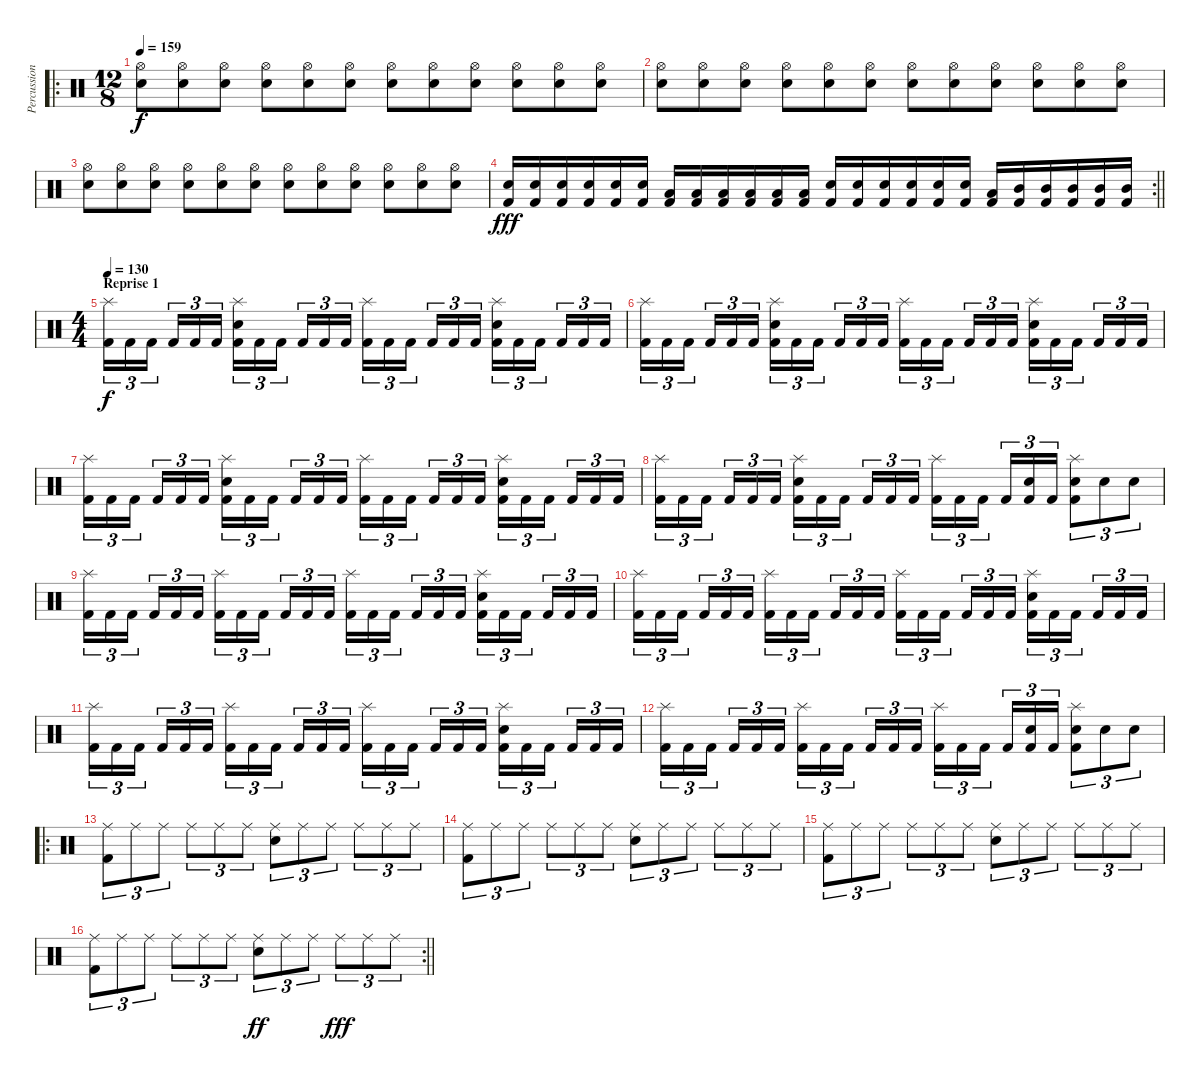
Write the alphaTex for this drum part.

\track ("Percussion" "Percussion") {instrument percussion}
\staff {score}
\articulation defaults
\ro
\ts (12 8)
\tempo 159
\clef neutral
\ks c
("Hi-Hat (open)" "Electric Snare (hit)").8{dy f} ("Hi-Hat (open)" "Electric Snare (hit)").8 ("Hi-Hat (open)" "Electric Snare (hit)").8 ("Hi-Hat (open)" "Electric Snare (hit)").8 ("Hi-Hat (open)" "Electric Snare (hit)").8 ("Hi-Hat (open)" "Electric Snare (hit)").8 ("Hi-Hat (open)" "Electric Snare (hit)").8 ("Hi-Hat (open)" "Electric Snare (hit)").8 ("Hi-Hat (open)" "Electric Snare (hit)").8 ("Hi-Hat (open)" "Electric Snare (hit)").8 ("Hi-Hat (open)" "Electric Snare (hit)").8 ("Hi-Hat (open)" "Electric Snare (hit)").8 |
("Hi-Hat (open)" "Electric Snare (hit)").8 ("Hi-Hat (open)" "Electric Snare (hit)").8 ("Hi-Hat (open)" "Electric Snare (hit)").8 ("Hi-Hat (open)" "Electric Snare (hit)").8 ("Hi-Hat (open)" "Electric Snare (hit)").8 ("Hi-Hat (open)" "Electric Snare (hit)").8 ("Hi-Hat (open)" "Electric Snare (hit)").8 ("Hi-Hat (open)" "Electric Snare (hit)").8 ("Hi-Hat (open)" "Electric Snare (hit)").8 ("Hi-Hat (open)" "Electric Snare (hit)").8 ("Hi-Hat (open)" "Electric Snare (hit)").8 ("Hi-Hat (open)" "Electric Snare (hit)").8 |
("Hi-Hat (open)" "Electric Snare (hit)").8 ("Hi-Hat (open)" "Electric Snare (hit)").8 ("Hi-Hat (open)" "Electric Snare (hit)").8 ("Hi-Hat (open)" "Electric Snare (hit)").8 ("Hi-Hat (open)" "Electric Snare (hit)").8 ("Hi-Hat (open)" "Electric Snare (hit)").8 ("Hi-Hat (open)" "Electric Snare (hit)").8 ("Hi-Hat (open)" "Electric Snare (hit)").8 ("Hi-Hat (open)" "Electric Snare (hit)").8 ("Hi-Hat (open)" "Electric Snare (hit)").8 ("Hi-Hat (open)" "Electric Snare (hit)").8 ("Hi-Hat (open)" "Electric Snare (hit)").8 |
\rc 2
\barLineRight lightlight
("Electric Snare (hit)" "Kick (hit) 2").16{dy fff} ("Electric Snare (hit)" "Kick (hit) 2").16 ("Electric Snare (hit)" "Kick (hit) 2").16 ("Electric Snare (hit)" "Kick (hit) 2").16 ("Electric Snare (hit)" "Kick (hit) 2").16 ("Electric Snare (hit)" "Kick (hit) 2").16 ("Low Tom (hit)" "Kick (hit) 2").16 ("Low Tom (hit)" "Kick (hit) 2").16 ("Low Tom (hit)" "Kick (hit) 2").16 ("Low Tom (hit)" "Kick (hit) 2").16 ("Low Tom (hit)" "Kick (hit) 2").16 ("Low Tom (hit)" "Kick (hit) 2").16 ("Electric Snare (hit)" "Kick (hit) 2").16 ("Electric Snare (hit)" "Kick (hit) 2").16 ("Electric Snare (hit)" "Kick (hit) 2").16 ("Electric Snare (hit)" "Kick (hit) 2").16 ("Electric Snare (hit)" "Kick (hit) 2").16 ("Electric Snare (hit)" "Kick (hit) 2").16 ("Low Tom (hit)" "Kick (hit) 2").16 ("Mid Tom (hit)" "Kick (hit) 2").16 ("Mid Tom (hit)" "Kick (hit) 2").16 ("Mid Tom (hit)" "Kick (hit) 2").16 ("Mid Tom (hit)" "Kick (hit) 2").16 ("Mid Tom (hit)" "Kick (hit) 2").16 |
\ts (4 4)
\section ("" "Reprise 1")
\tempo 130
("Splash (hit)" "Kick (hit) 2").16{tu (3 2) dy f} "Kick (hit) 2".16{tu (3 2)} "Kick (hit) 2".16{tu (3 2)} "Kick (hit) 2".16{tu (3 2)} "Kick (hit) 2".16{tu (3 2)} "Kick (hit) 2".16{tu (3 2)} ("Splash (hit)" "Electric Snare (hit)" "Kick (hit) 2").16{tu (3 2)} "Kick (hit) 2".16{tu (3 2)} "Kick (hit) 2".16{tu (3 2)} "Kick (hit) 2".16{tu (3 2)} "Kick (hit) 2".16{tu (3 2)} "Kick (hit) 2".16{tu (3 2)} ("Splash (hit)" "Kick (hit) 2").16{tu (3 2)} "Kick (hit) 2".16{tu (3 2)} "Kick (hit) 2".16{tu (3 2)} "Kick (hit) 2".16{tu (3 2)} "Kick (hit) 2".16{tu (3 2)} "Kick (hit) 2".16{tu (3 2)} ("Splash (hit)" "Electric Snare (hit)" "Kick (hit) 2").16{tu (3 2)} "Kick (hit) 2".16{tu (3 2)} "Kick (hit) 2".16{tu (3 2)} "Kick (hit) 2".16{tu (3 2)} "Kick (hit) 2".16{tu (3 2)} "Kick (hit) 2".16{tu (3 2)} |
("Splash (hit)" "Kick (hit) 2").16{tu (3 2)} "Kick (hit) 2".16{tu (3 2)} "Kick (hit) 2".16{tu (3 2)} "Kick (hit) 2".16{tu (3 2)} "Kick (hit) 2".16{tu (3 2)} "Kick (hit) 2".16{tu (3 2)} ("Splash (hit)" "Electric Snare (hit)" "Kick (hit) 2").16{tu (3 2)} "Kick (hit) 2".16{tu (3 2)} "Kick (hit) 2".16{tu (3 2)} "Kick (hit) 2".16{tu (3 2)} "Kick (hit) 2".16{tu (3 2)} "Kick (hit) 2".16{tu (3 2)} ("Splash (hit)" "Kick (hit) 2").16{tu (3 2)} "Kick (hit) 2".16{tu (3 2)} "Kick (hit) 2".16{tu (3 2)} "Kick (hit) 2".16{tu (3 2)} "Kick (hit) 2".16{tu (3 2)} "Kick (hit) 2".16{tu (3 2)} ("Splash (hit)" "Electric Snare (hit)" "Kick (hit) 2").16{tu (3 2)} "Kick (hit) 2".16{tu (3 2)} "Kick (hit) 2".16{tu (3 2)} "Kick (hit) 2".16{tu (3 2)} "Kick (hit) 2".16{tu (3 2)} "Kick (hit) 2".16{tu (3 2)} |
("Splash (hit)" "Kick (hit) 2").16{tu (3 2)} "Kick (hit) 2".16{tu (3 2)} "Kick (hit) 2".16{tu (3 2)} "Kick (hit) 2".16{tu (3 2)} "Kick (hit) 2".16{tu (3 2)} "Kick (hit) 2".16{tu (3 2)} ("Splash (hit)" "Electric Snare (hit)" "Kick (hit) 2").16{tu (3 2)} "Kick (hit) 2".16{tu (3 2)} "Kick (hit) 2".16{tu (3 2)} "Kick (hit) 2".16{tu (3 2)} "Kick (hit) 2".16{tu (3 2)} "Kick (hit) 2".16{tu (3 2)} ("Splash (hit)" "Kick (hit) 2").16{tu (3 2)} "Kick (hit) 2".16{tu (3 2)} "Kick (hit) 2".16{tu (3 2)} "Kick (hit) 2".16{tu (3 2)} "Kick (hit) 2".16{tu (3 2)} "Kick (hit) 2".16{tu (3 2)} ("Splash (hit)" "Electric Snare (hit)" "Kick (hit) 2").16{tu (3 2)} "Kick (hit) 2".16{tu (3 2)} "Kick (hit) 2".16{tu (3 2)} "Kick (hit) 2".16{tu (3 2)} "Kick (hit) 2".16{tu (3 2)} "Kick (hit) 2".16{tu (3 2)} |
("Splash (hit)" "Kick (hit) 2").16{tu (3 2)} "Kick (hit) 2".16{tu (3 2)} "Kick (hit) 2".16{tu (3 2)} "Kick (hit) 2".16{tu (3 2)} "Kick (hit) 2".16{tu (3 2)} "Kick (hit) 2".16{tu (3 2)} ("Splash (hit)" "Electric Snare (hit)" "Kick (hit) 2").16{tu (3 2)} "Kick (hit) 2".16{tu (3 2)} "Kick (hit) 2".16{tu (3 2)} "Kick (hit) 2".16{tu (3 2)} "Kick (hit) 2".16{tu (3 2)} "Kick (hit) 2".16{tu (3 2)} ("Splash (hit)" "Kick (hit) 2").16{tu (3 2)} "Kick (hit) 2".16{tu (3 2)} "Kick (hit) 2".16{tu (3 2)} "Kick (hit) 2".16{tu (3 2)} ("Electric Snare (hit)" "Kick (hit) 2").16{tu (3 2)} "Kick (hit) 2".16{tu (3 2)} ("Splash (hit)" "Electric Snare (hit)" "Kick (hit) 2").8{tu (3 2)} "Electric Snare (hit)".8{tu (3 2)} "Electric Snare (hit)".8{tu (3 2)} |
("Splash (hit)" "Kick (hit) 2").16{tu (3 2)} "Kick (hit) 2".16{tu (3 2)} "Kick (hit) 2".16{tu (3 2)} "Kick (hit) 2".16{tu (3 2)} "Kick (hit) 2".16{tu (3 2)} "Kick (hit) 2".16{tu (3 2)} ("Splash (hit)" "Kick (hit) 2").16{tu (3 2)} "Kick (hit) 2".16{tu (3 2)} "Kick (hit) 2".16{tu (3 2)} "Kick (hit) 2".16{tu (3 2)} "Kick (hit) 2".16{tu (3 2)} "Kick (hit) 2".16{tu (3 2)} ("Splash (hit)" "Kick (hit) 2").16{tu (3 2)} "Kick (hit) 2".16{tu (3 2)} "Kick (hit) 2".16{tu (3 2)} "Kick (hit) 2".16{tu (3 2)} "Kick (hit) 2".16{tu (3 2)} "Kick (hit) 2".16{tu (3 2)} ("Splash (hit)" "Electric Snare (hit)" "Kick (hit) 2").16{tu (3 2)} "Kick (hit) 2".16{tu (3 2)} "Kick (hit) 2".16{tu (3 2)} "Kick (hit) 2".16{tu (3 2)} "Kick (hit) 2".16{tu (3 2)} "Kick (hit) 2".16{tu (3 2)} |
("Splash (hit)" "Kick (hit) 2").16{tu (3 2)} "Kick (hit) 2".16{tu (3 2)} "Kick (hit) 2".16{tu (3 2)} "Kick (hit) 2".16{tu (3 2)} "Kick (hit) 2".16{tu (3 2)} "Kick (hit) 2".16{tu (3 2)} ("Splash (hit)" "Kick (hit) 2").16{tu (3 2)} "Kick (hit) 2".16{tu (3 2)} "Kick (hit) 2".16{tu (3 2)} "Kick (hit) 2".16{tu (3 2)} "Kick (hit) 2".16{tu (3 2)} "Kick (hit) 2".16{tu (3 2)} ("Splash (hit)" "Kick (hit) 2").16{tu (3 2)} "Kick (hit) 2".16{tu (3 2)} "Kick (hit) 2".16{tu (3 2)} "Kick (hit) 2".16{tu (3 2)} "Kick (hit) 2".16{tu (3 2)} "Kick (hit) 2".16{tu (3 2)} ("Splash (hit)" "Electric Snare (hit)" "Kick (hit) 2").16{tu (3 2)} "Kick (hit) 2".16{tu (3 2)} "Kick (hit) 2".16{tu (3 2)} "Kick (hit) 2".16{tu (3 2)} "Kick (hit) 2".16{tu (3 2)} "Kick (hit) 2".16{tu (3 2)} |
("Splash (hit)" "Kick (hit) 2").16{tu (3 2)} "Kick (hit) 2".16{tu (3 2)} "Kick (hit) 2".16{tu (3 2)} "Kick (hit) 2".16{tu (3 2)} "Kick (hit) 2".16{tu (3 2)} "Kick (hit) 2".16{tu (3 2)} ("Splash (hit)" "Kick (hit) 2").16{tu (3 2)} "Kick (hit) 2".16{tu (3 2)} "Kick (hit) 2".16{tu (3 2)} "Kick (hit) 2".16{tu (3 2)} "Kick (hit) 2".16{tu (3 2)} "Kick (hit) 2".16{tu (3 2)} ("Splash (hit)" "Kick (hit) 2").16{tu (3 2)} "Kick (hit) 2".16{tu (3 2)} "Kick (hit) 2".16{tu (3 2)} "Kick (hit) 2".16{tu (3 2)} "Kick (hit) 2".16{tu (3 2)} "Kick (hit) 2".16{tu (3 2)} ("Splash (hit)" "Electric Snare (hit)" "Kick (hit) 2").16{tu (3 2)} "Kick (hit) 2".16{tu (3 2)} "Kick (hit) 2".16{tu (3 2)} "Kick (hit) 2".16{tu (3 2)} "Kick (hit) 2".16{tu (3 2)} "Kick (hit) 2".16{tu (3 2)} |
("Splash (hit)" "Kick (hit) 2").16{tu (3 2)} "Kick (hit) 2".16{tu (3 2)} "Kick (hit) 2".16{tu (3 2)} "Kick (hit) 2".16{tu (3 2)} "Kick (hit) 2".16{tu (3 2)} "Kick (hit) 2".16{tu (3 2)} ("Splash (hit)" "Kick (hit) 2").16{tu (3 2)} "Kick (hit) 2".16{tu (3 2)} "Kick (hit) 2".16{tu (3 2)} "Kick (hit) 2".16{tu (3 2)} "Kick (hit) 2".16{tu (3 2)} "Kick (hit) 2".16{tu (3 2)} ("Splash (hit)" "Kick (hit) 2").16{tu (3 2)} "Kick (hit) 2".16{tu (3 2)} "Kick (hit) 2".16{tu (3 2)} "Kick (hit) 2".16{tu (3 2)} ("Electric Snare (hit)" "Kick (hit) 2").16{tu (3 2)} "Kick (hit) 2".16{tu (3 2)} ("Splash (hit)" "Electric Snare (hit)" "Kick (hit) 2").8{tu (3 2)} "Electric Snare (hit)".8{tu (3 2)} "Electric Snare (hit)".8{tu (3 2)} |
\ro
("Ride (middle)" "Kick (hit) 2").8{tu (3 2)} "Ride (middle)".8{tu (3 2)} "Ride (middle)".8{tu (3 2)} "Ride (middle)".8{tu (3 2)} "Ride (middle)".8{tu (3 2)} "Ride (middle)".8{tu (3 2)} ("Ride (middle)" "Electric Snare (hit)").8{tu (3 2)} "Ride (middle)".8{tu (3 2)} "Ride (middle)".8{tu (3 2)} "Ride (middle)".8{tu (3 2)} "Ride (middle)".8{tu (3 2)} "Ride (middle)".8{tu (3 2)} |
("Ride (middle)" "Kick (hit) 2").8{tu (3 2)} "Ride (middle)".8{tu (3 2)} "Ride (middle)".8{tu (3 2)} "Ride (middle)".8{tu (3 2)} "Ride (middle)".8{tu (3 2)} "Ride (middle)".8{tu (3 2)} ("Ride (middle)" "Electric Snare (hit)").8{tu (3 2)} "Ride (middle)".8{tu (3 2)} "Ride (middle)".8{tu (3 2)} "Ride (middle)".8{tu (3 2)} "Ride (middle)".8{tu (3 2)} "Ride (middle)".8{tu (3 2)} |
("Ride (middle)" "Kick (hit) 2").8{tu (3 2)} "Ride (middle)".8{tu (3 2)} "Ride (middle)".8{tu (3 2)} "Ride (middle)".8{tu (3 2)} "Ride (middle)".8{tu (3 2)} "Ride (middle)".8{tu (3 2)} ("Ride (middle)" "Electric Snare (hit)").8{tu (3 2)} "Ride (middle)".8{tu (3 2)} "Ride (middle)".8{tu (3 2)} "Ride (middle)".8{tu (3 2)} "Ride (middle)".8{tu (3 2)} "Ride (middle)".8{tu (3 2)} |
\rc 2
\barLineRight lightlight
("Ride (middle)" "Kick (hit) 2").8{tu (3 2)} "Ride (middle)".8{tu (3 2)} "Ride (middle)".8{tu (3 2)} "Ride (middle)".8{tu (3 2)} "Ride (middle)".8{tu (3 2)} "Ride (middle)".8{tu (3 2)} ("Ride (middle)" "Electric Snare (hit)").8{tu (3 2) dy ff} "Ride (middle)".8{tu (3 2)} "Ride (middle)".8{tu (3 2)} "Ride (middle)".8{tu (3 2) dy fff} "Ride (middle)".8{tu (3 2)} "Ride (middle)".8{tu (3 2)}
